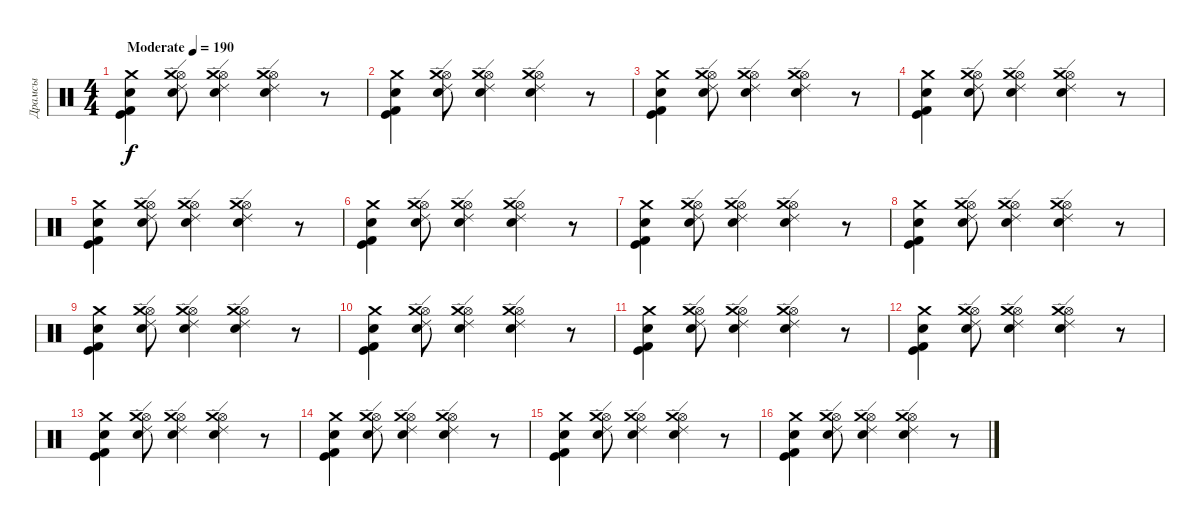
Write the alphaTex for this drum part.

\track ("Драмсы" "Драмсы") {instrument percussion}
\staff {score}
\articulation defaults
\ts (4 4)
\tempo (190 "Moderate")
\clef neutral
\ks c
("Kick (hit)" "Kick (hit) 2" "Snare (hit) 2" "Crash medium (hit)").4{dy f} ("Hi-Hat (open)" "Crash medium (hit)" "Ride (edge) 2" "Snare (hit) 2").8 ("Hi-Hat (open)" "Crash medium (hit)" "Ride (edge) 2" "Snare (hit) 2").4 ("Hi-Hat (open)" "Crash medium (hit)" "Ride (edge) 2" "Snare (hit) 2").4 r.8 |
("Kick (hit)" "Kick (hit) 2" "Snare (hit) 2" "Crash medium (hit)").4 ("Hi-Hat (open)" "Crash medium (hit)" "Ride (edge) 2" "Snare (hit) 2").8 ("Hi-Hat (open)" "Crash medium (hit)" "Ride (edge) 2" "Snare (hit) 2").4 ("Hi-Hat (open)" "Crash medium (hit)" "Ride (edge) 2" "Snare (hit) 2").4 r.8 |
("Kick (hit)" "Kick (hit) 2" "Snare (hit) 2" "Crash medium (hit)").4 ("Hi-Hat (open)" "Crash medium (hit)" "Ride (edge) 2" "Snare (hit) 2").8 ("Hi-Hat (open)" "Crash medium (hit)" "Ride (edge) 2" "Snare (hit) 2").4 ("Hi-Hat (open)" "Crash medium (hit)" "Ride (edge) 2" "Snare (hit) 2").4 r.8 |
("Kick (hit)" "Kick (hit) 2" "Snare (hit) 2" "Crash medium (hit)").4 ("Hi-Hat (open)" "Crash medium (hit)" "Ride (edge) 2" "Snare (hit) 2").8 ("Hi-Hat (open)" "Crash medium (hit)" "Ride (edge) 2" "Snare (hit) 2").4 ("Hi-Hat (open)" "Crash medium (hit)" "Ride (edge) 2" "Snare (hit) 2").4 r.8 |
("Kick (hit)" "Kick (hit) 2" "Snare (hit) 2" "Crash medium (hit)").4 ("Hi-Hat (open)" "Crash medium (hit)" "Ride (edge) 2" "Snare (hit) 2").8 ("Hi-Hat (open)" "Crash medium (hit)" "Ride (edge) 2" "Snare (hit) 2").4 ("Hi-Hat (open)" "Crash medium (hit)" "Ride (edge) 2" "Snare (hit) 2").4 r.8 |
("Kick (hit)" "Kick (hit) 2" "Snare (hit) 2" "Crash medium (hit)").4 ("Hi-Hat (open)" "Crash medium (hit)" "Ride (edge) 2" "Snare (hit) 2").8 ("Hi-Hat (open)" "Crash medium (hit)" "Ride (edge) 2" "Snare (hit) 2").4 ("Hi-Hat (open)" "Crash medium (hit)" "Ride (edge) 2" "Snare (hit) 2").4 r.8 |
("Kick (hit)" "Kick (hit) 2" "Snare (hit) 2" "Crash medium (hit)").4 ("Hi-Hat (open)" "Crash medium (hit)" "Ride (edge) 2" "Snare (hit) 2").8 ("Hi-Hat (open)" "Crash medium (hit)" "Ride (edge) 2" "Snare (hit) 2").4 ("Hi-Hat (open)" "Crash medium (hit)" "Ride (edge) 2" "Snare (hit) 2").4 r.8 |
("Kick (hit)" "Kick (hit) 2" "Snare (hit) 2" "Crash medium (hit)").4 ("Hi-Hat (open)" "Crash medium (hit)" "Ride (edge) 2" "Snare (hit) 2").8 ("Hi-Hat (open)" "Crash medium (hit)" "Ride (edge) 2" "Snare (hit) 2").4 ("Hi-Hat (open)" "Crash medium (hit)" "Ride (edge) 2" "Snare (hit) 2").4 r.8 |
("Kick (hit)" "Kick (hit) 2" "Snare (hit) 2" "Crash medium (hit)").4 ("Hi-Hat (open)" "Crash medium (hit)" "Ride (edge) 2" "Snare (hit) 2").8 ("Hi-Hat (open)" "Crash medium (hit)" "Ride (edge) 2" "Snare (hit) 2").4 ("Hi-Hat (open)" "Crash medium (hit)" "Ride (edge) 2" "Snare (hit) 2").4 r.8 |
("Kick (hit)" "Kick (hit) 2" "Snare (hit) 2" "Crash medium (hit)").4 ("Hi-Hat (open)" "Crash medium (hit)" "Ride (edge) 2" "Snare (hit) 2").8 ("Hi-Hat (open)" "Crash medium (hit)" "Ride (edge) 2" "Snare (hit) 2").4 ("Hi-Hat (open)" "Crash medium (hit)" "Ride (edge) 2" "Snare (hit) 2").4 r.8 |
("Kick (hit)" "Kick (hit) 2" "Snare (hit) 2" "Crash medium (hit)").4 ("Hi-Hat (open)" "Crash medium (hit)" "Ride (edge) 2" "Snare (hit) 2").8 ("Hi-Hat (open)" "Crash medium (hit)" "Ride (edge) 2" "Snare (hit) 2").4 ("Hi-Hat (open)" "Crash medium (hit)" "Ride (edge) 2" "Snare (hit) 2").4 r.8 |
("Kick (hit)" "Kick (hit) 2" "Snare (hit) 2" "Crash medium (hit)").4 ("Hi-Hat (open)" "Crash medium (hit)" "Ride (edge) 2" "Snare (hit) 2").8 ("Hi-Hat (open)" "Crash medium (hit)" "Ride (edge) 2" "Snare (hit) 2").4 ("Hi-Hat (open)" "Crash medium (hit)" "Ride (edge) 2" "Snare (hit) 2").4 r.8 |
("Kick (hit)" "Kick (hit) 2" "Snare (hit) 2" "Crash medium (hit)").4 ("Hi-Hat (open)" "Crash medium (hit)" "Ride (edge) 2" "Snare (hit) 2").8 ("Hi-Hat (open)" "Crash medium (hit)" "Ride (edge) 2" "Snare (hit) 2").4 ("Hi-Hat (open)" "Crash medium (hit)" "Ride (edge) 2" "Snare (hit) 2").4 r.8 |
("Kick (hit)" "Kick (hit) 2" "Snare (hit) 2" "Crash medium (hit)").4 ("Hi-Hat (open)" "Crash medium (hit)" "Ride (edge) 2" "Snare (hit) 2").8 ("Hi-Hat (open)" "Crash medium (hit)" "Ride (edge) 2" "Snare (hit) 2").4 ("Hi-Hat (open)" "Crash medium (hit)" "Ride (edge) 2" "Snare (hit) 2").4 r.8 |
("Kick (hit)" "Kick (hit) 2" "Snare (hit) 2" "Crash medium (hit)").4 ("Hi-Hat (open)" "Crash medium (hit)" "Ride (edge) 2" "Snare (hit) 2").8 ("Hi-Hat (open)" "Crash medium (hit)" "Ride (edge) 2" "Snare (hit) 2").4 ("Hi-Hat (open)" "Crash medium (hit)" "Ride (edge) 2" "Snare (hit) 2").4 r.8 |
("Kick (hit)" "Kick (hit) 2" "Snare (hit) 2" "Crash medium (hit)").4 ("Hi-Hat (open)" "Crash medium (hit)" "Ride (edge) 2" "Snare (hit) 2").8 ("Hi-Hat (open)" "Crash medium (hit)" "Ride (edge) 2" "Snare (hit) 2").4 ("Hi-Hat (open)" "Crash medium (hit)" "Ride (edge) 2" "Snare (hit) 2").4 r.8
